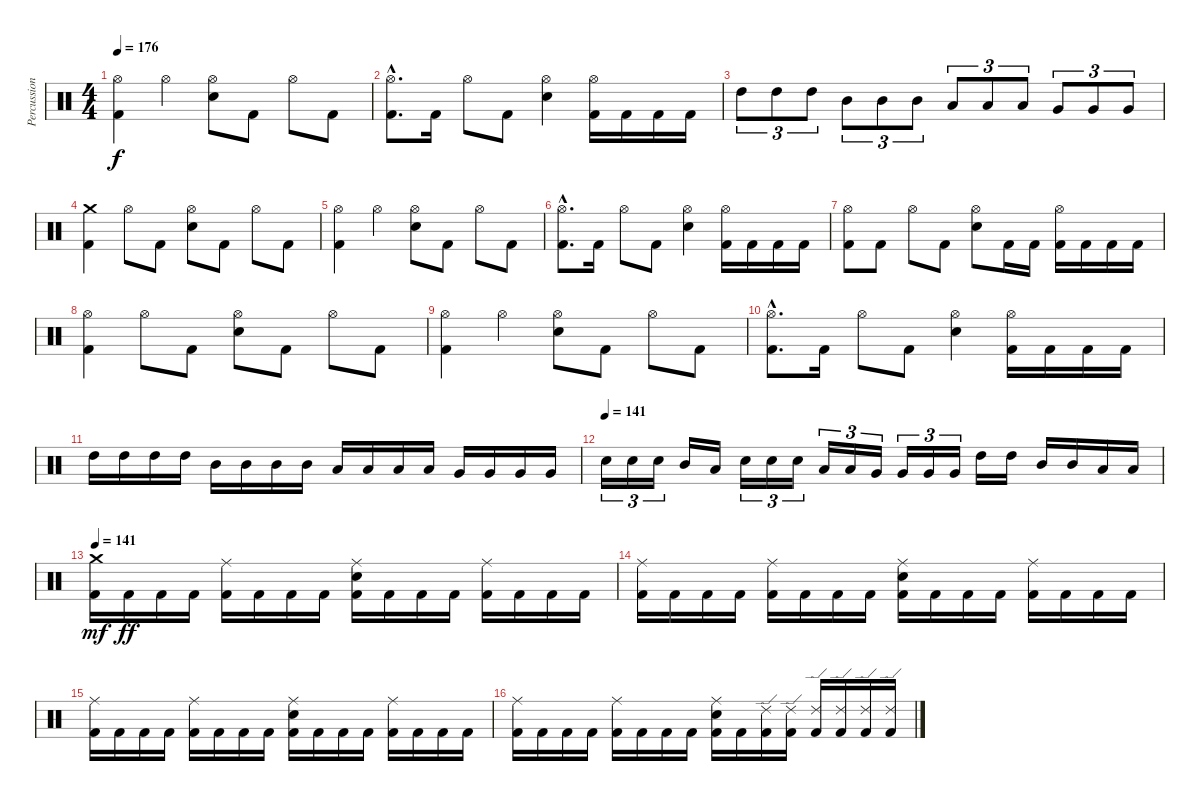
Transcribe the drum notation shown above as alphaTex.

\track ("Percussion" "Percussion") {instrument percussion}
\staff {score}
\articulation defaults
\ts (4 4)
\tempo 176
\clef neutral
\ks c
("Kick (hit) 2" "Hi-Hat (open)").4{dy f} "Hi-Hat (open)".4 ("Electric Snare (hit)" "Hi-Hat (open)").8 "Kick (hit) 2".8 "Hi-Hat (open)".8 "Kick (hit) 2".8 |
("Kick (hit) 2"{hac} "Hi-Hat (open)"{hac}).8{d} "Kick (hit) 2".16 "Hi-Hat (open)".8 "Kick (hit) 2".8 ("Electric Snare (hit)" "Hi-Hat (open)").4 ("Kick (hit) 2" "Hi-Hat (open)").16 "Kick (hit) 2".16 "Kick (hit) 2".16 "Kick (hit) 2".16 |
"High Tom (hit)".8{tu (3 2)} "High Tom (hit)".8{tu (3 2)} "High Tom (hit)".8{tu (3 2)} "Mid Tom (hit)".8{tu (3 2)} "Mid Tom (hit)".8{tu (3 2)} "Mid Tom (hit)".8{tu (3 2)} "Low Tom (hit)".8{tu (3 2)} "Low Tom (hit)".8{tu (3 2)} "Low Tom (hit)".8{tu (3 2)} "Very Low Tom (hit)".8{tu (3 2)} "Very Low Tom (hit)".8{tu (3 2)} "Very Low Tom (hit)".8{tu (3 2)} |
("Kick (hit) 2" "Crash medium (hit)").4 "Hi-Hat (open)".8 "Kick (hit) 2".8 ("Electric Snare (hit)" "Hi-Hat (open)").8 "Kick (hit) 2".8 "Hi-Hat (open)".8 "Kick (hit) 2".8 |
("Kick (hit) 2" "Hi-Hat (open)").4 "Hi-Hat (open)".4 ("Electric Snare (hit)" "Hi-Hat (open)").8 "Kick (hit) 2".8 "Hi-Hat (open)".8 "Kick (hit) 2".8 |
("Kick (hit) 2"{hac} "Hi-Hat (open)"{hac}).8{d} "Kick (hit) 2".16 "Hi-Hat (open)".8 "Kick (hit) 2".8 ("Electric Snare (hit)" "Hi-Hat (open)").4 ("Kick (hit) 2" "Hi-Hat (open)").16 "Kick (hit) 2".16 "Kick (hit) 2".16 "Kick (hit) 2".16 |
("Kick (hit) 2" "Hi-Hat (open)").8 "Kick (hit) 2".8 "Hi-Hat (open)".8 "Kick (hit) 2".8 ("Electric Snare (hit)" "Hi-Hat (open)").8 "Kick (hit) 2".16 "Kick (hit) 2".16 ("Kick (hit) 2" "Hi-Hat (open)").16 "Kick (hit) 2".16 "Kick (hit) 2".16 "Kick (hit) 2".16 |
("Kick (hit) 2" "Hi-Hat (open)").4 "Hi-Hat (open)".8 "Kick (hit) 2".8 ("Electric Snare (hit)" "Hi-Hat (open)").8 "Kick (hit) 2".8 "Hi-Hat (open)".8 "Kick (hit) 2".8 |
("Kick (hit) 2" "Hi-Hat (open)").4 "Hi-Hat (open)".4 ("Electric Snare (hit)" "Hi-Hat (open)").8 "Kick (hit) 2".8 "Hi-Hat (open)".8 "Kick (hit) 2".8 |
("Kick (hit) 2"{hac} "Hi-Hat (open)"{hac}).8{d} "Kick (hit) 2".16 "Hi-Hat (open)".8 "Kick (hit) 2".8 ("Electric Snare (hit)" "Hi-Hat (open)").4 ("Kick (hit) 2" "Hi-Hat (open)").16 "Kick (hit) 2".16 "Kick (hit) 2".16 "Kick (hit) 2".16 |
"High Tom (hit)".16 "High Tom (hit)".16 "High Tom (hit)".16 "High Tom (hit)".16 "Mid Tom (hit)".16 "Mid Tom (hit)".16 "Mid Tom (hit)".16 "Mid Tom (hit)".16 "Low Tom (hit)".16 "Low Tom (hit)".16 "Low Tom (hit)".16 "Low Tom (hit)".16 "Very Low Tom (hit)".16 "Very Low Tom (hit)".16 "Very Low Tom (hit)".16 "Very Low Tom (hit)".16 |
\tempo (141)
"Electric Snare (hit)".16{tu (3 2)} "Electric Snare (hit)".16{tu (3 2)} "Electric Snare (hit)".16{tu (3 2)} "Mid Tom (hit)".16 "Low Tom (hit)".16 "Electric Snare (hit)".16{tu (3 2)} "Electric Snare (hit)".16{tu (3 2)} "Electric Snare (hit)".16{tu (3 2)} "Low Tom (hit)".16{tu (3 2)} "Low Tom (hit)".16{tu (3 2)} "Very Low Tom (hit)".16{tu (3 2)} "Very Low Tom (hit)".16{tu (3 2)} "Very Low Tom (hit)".16{tu (3 2)} "Very Low Tom (hit)".16{tu (3 2)} "High Tom (hit)".16 "High Tom (hit)".16 "Mid Tom (hit)".16 "Mid Tom (hit)".16 "Low Tom (hit)".16 "Low Tom (hit)".16 |
\tempo 141
("Kick (hit) 2" "Crash medium (hit)").16{dy mf volume 11} "Kick (hit) 2".16{dy ff} "Kick (hit) 2".16 "Kick (hit) 2".16 ("Kick (hit) 2" "Ride (middle)").16 "Kick (hit) 2".16 "Kick (hit) 2".16 "Kick (hit) 2".16 ("Kick (hit) 2" "Electric Snare (hit)" "Ride (middle)").16 "Kick (hit) 2".16 "Kick (hit) 2".16 "Kick (hit) 2".16 ("Kick (hit) 2" "Ride (middle)").16 "Kick (hit) 2".16 "Kick (hit) 2".16 "Kick (hit) 2".16 |
("Kick (hit) 2" "Ride (middle)").16 "Kick (hit) 2".16 "Kick (hit) 2".16 "Kick (hit) 2".16 ("Kick (hit) 2" "Ride (middle)").16 "Kick (hit) 2".16 "Kick (hit) 2".16 "Kick (hit) 2".16 ("Kick (hit) 2" "Electric Snare (hit)" "Ride (middle)").16 "Kick (hit) 2".16 "Kick (hit) 2".16 "Kick (hit) 2".16 ("Kick (hit) 2" "Ride (middle)").16 "Kick (hit) 2".16 "Kick (hit) 2".16 "Kick (hit) 2".16 |
("Kick (hit) 2" "Ride (middle)").16 "Kick (hit) 2".16 "Kick (hit) 2".16 "Kick (hit) 2".16 ("Kick (hit) 2" "Ride (middle)").16 "Kick (hit) 2".16 "Kick (hit) 2".16 "Kick (hit) 2".16 ("Kick (hit) 2" "Electric Snare (hit)" "Ride (middle)").16 "Kick (hit) 2".16 "Kick (hit) 2".16 "Kick (hit) 2".16 ("Kick (hit) 2" "Ride (middle)").16 "Kick (hit) 2".16 "Kick (hit) 2".16 "Kick (hit) 2".16 |
("Kick (hit) 2" "Ride (middle)").16 "Kick (hit) 2".16 "Kick (hit) 2".16 "Kick (hit) 2".16 ("Kick (hit) 2" "Ride (middle)").16 "Kick (hit) 2".16 "Kick (hit) 2".16 "Kick (hit) 2".16 ("Kick (hit) 2" "Electric Snare (hit)" "Ride (middle)").16 "Kick (hit) 2".16 ("Kick (hit) 2" "Ride (edge) 2").16 ("Kick (hit) 2" "Ride (edge) 2").16 ("Kick (hit) 2" "Ride (edge) 2").16 ("Kick (hit) 2" "Ride (edge) 2").16 ("Kick (hit) 2" "Ride (edge) 2").16 ("Kick (hit) 2" "Ride (edge) 2").16
